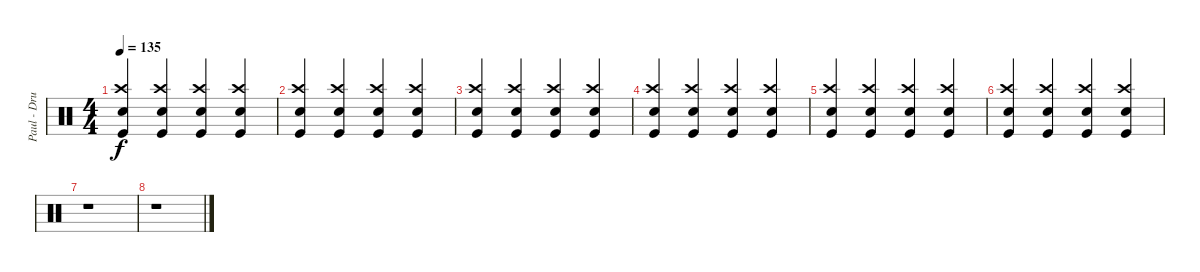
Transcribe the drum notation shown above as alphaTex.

\track ("Paul - Drums" "Paul - Dru") {instrument percussion}
\staff {score}
\articulation defaults
\ts (4 4)
\tempo 135
\clef neutral
\ks c
("Kick (hit)" "Crash high (hit)" "Snare (hit) 2").4{dy f} ("Kick (hit)" "Crash high (hit)" "Snare (hit) 2").4 ("Kick (hit)" "Crash high (hit)" "Snare (hit) 2").4 ("Kick (hit)" "Crash high (hit)" "Snare (hit) 2").4 |
("Kick (hit)" "Crash high (hit)" "Snare (hit) 2").4 ("Kick (hit)" "Crash high (hit)" "Snare (hit) 2").4 ("Kick (hit)" "Crash high (hit)" "Snare (hit) 2").4 ("Kick (hit)" "Crash high (hit)" "Snare (hit) 2").4 |
("Kick (hit)" "Crash high (hit)" "Snare (hit) 2").4 ("Kick (hit)" "Crash high (hit)" "Snare (hit) 2").4 ("Kick (hit)" "Crash high (hit)" "Snare (hit) 2").4 ("Kick (hit)" "Crash high (hit)" "Snare (hit) 2").4 |
("Kick (hit)" "Crash high (hit)" "Snare (hit) 2").4 ("Kick (hit)" "Crash high (hit)" "Snare (hit) 2").4 ("Kick (hit)" "Crash high (hit)" "Snare (hit) 2").4 ("Kick (hit)" "Crash high (hit)" "Snare (hit) 2").4 |
("Kick (hit)" "Crash high (hit)" "Snare (hit) 2").4 ("Kick (hit)" "Crash high (hit)" "Snare (hit) 2").4 ("Kick (hit)" "Crash high (hit)" "Snare (hit) 2").4 ("Kick (hit)" "Crash high (hit)" "Snare (hit) 2").4 |
("Kick (hit)" "Crash high (hit)" "Snare (hit) 2").4 ("Kick (hit)" "Crash high (hit)" "Snare (hit) 2").4 ("Kick (hit)" "Crash high (hit)" "Snare (hit) 2").4 ("Kick (hit)" "Crash high (hit)" "Snare (hit) 2").4 |
r.1 |
r.1
